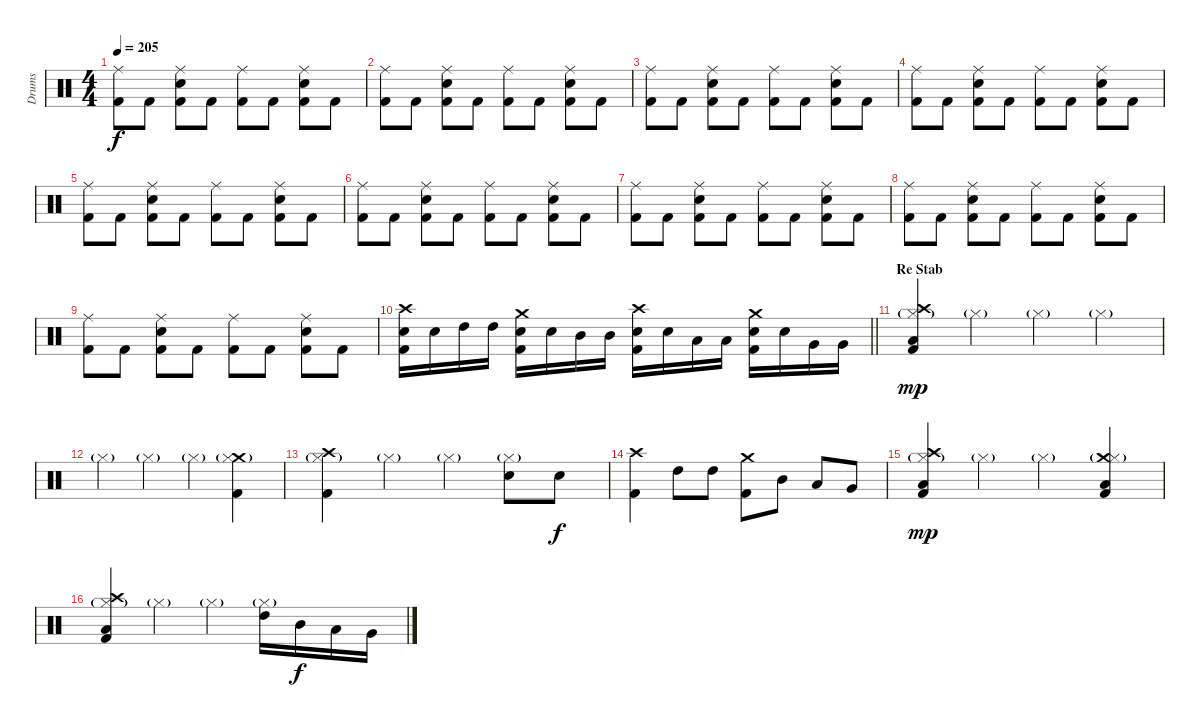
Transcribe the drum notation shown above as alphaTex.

\track ("Drums" "Drums") {instrument percussion}
\staff {score}
\articulation defaults
\ts (4 4)
\tempo 205
\clef neutral
\ks c
("Ride (middle)" "Kick (hit) 2").8{dy f} "Kick (hit) 2".8 ("Ride (middle)" "Snare (hit) 2" "Kick (hit) 2").8 "Kick (hit) 2".8 ("Ride (middle)" "Kick (hit) 2").8 "Kick (hit) 2".8 ("Ride (middle)" "Snare (hit) 2" "Kick (hit) 2").8 "Kick (hit) 2".8 |
("Ride (middle)" "Kick (hit) 2").8 "Kick (hit) 2".8 ("Ride (middle)" "Snare (hit) 2" "Kick (hit) 2").8 "Kick (hit) 2".8 ("Ride (middle)" "Kick (hit) 2").8 "Kick (hit) 2".8 ("Ride (middle)" "Snare (hit) 2" "Kick (hit) 2").8 "Kick (hit) 2".8 |
("Ride (middle)" "Kick (hit) 2").8 "Kick (hit) 2".8 ("Ride (middle)" "Snare (hit) 2" "Kick (hit) 2").8 "Kick (hit) 2".8 ("Ride (middle)" "Kick (hit) 2").8 "Kick (hit) 2".8 ("Ride (middle)" "Snare (hit) 2" "Kick (hit) 2").8 "Kick (hit) 2".8 |
("Ride (middle)" "Kick (hit) 2").8 "Kick (hit) 2".8 ("Ride (middle)" "Snare (hit) 2" "Kick (hit) 2").8 "Kick (hit) 2".8 ("Ride (middle)" "Kick (hit) 2").8 "Kick (hit) 2".8 ("Ride (middle)" "Snare (hit) 2" "Kick (hit) 2").8 "Kick (hit) 2".8 |
("Ride (middle)" "Kick (hit) 2").8 "Kick (hit) 2".8 ("Ride (middle)" "Snare (hit) 2" "Kick (hit) 2").8 "Kick (hit) 2".8 ("Ride (middle)" "Kick (hit) 2").8 "Kick (hit) 2".8 ("Ride (middle)" "Snare (hit) 2" "Kick (hit) 2").8 "Kick (hit) 2".8 |
("Ride (middle)" "Kick (hit) 2").8 "Kick (hit) 2".8 ("Ride (middle)" "Snare (hit) 2" "Kick (hit) 2").8 "Kick (hit) 2".8 ("Ride (middle)" "Kick (hit) 2").8 "Kick (hit) 2".8 ("Ride (middle)" "Snare (hit) 2" "Kick (hit) 2").8 "Kick (hit) 2".8 |
("Ride (middle)" "Kick (hit) 2").8 "Kick (hit) 2".8 ("Ride (middle)" "Snare (hit) 2" "Kick (hit) 2").8 "Kick (hit) 2".8 ("Ride (middle)" "Kick (hit) 2").8 "Kick (hit) 2".8 ("Ride (middle)" "Snare (hit) 2" "Kick (hit) 2").8 "Kick (hit) 2".8 |
("Ride (middle)" "Kick (hit) 2").8 "Kick (hit) 2".8 ("Ride (middle)" "Snare (hit) 2" "Kick (hit) 2").8 "Kick (hit) 2".8 ("Ride (middle)" "Kick (hit) 2").8 "Kick (hit) 2".8 ("Ride (middle)" "Snare (hit) 2" "Kick (hit) 2").8 "Kick (hit) 2".8 |
("Ride (middle)" "Kick (hit) 2").8 "Kick (hit) 2".8 ("Ride (middle)" "Snare (hit) 2" "Kick (hit) 2").8 "Kick (hit) 2".8 ("Ride (middle)" "Kick (hit) 2").8 "Kick (hit) 2".8 ("Ride (middle)" "Snare (hit) 2" "Kick (hit) 2").8 "Kick (hit) 2".8 |
\barLineRight lightlight
("Crash high (hit)" "Snare (hit) 2" "Kick (hit) 2").16 "Snare (hit) 2".16 "High Tom (hit)".16 "High Tom (hit)".16 ("Crash medium (hit)" "Snare (hit) 2" "Kick (hit) 2").16 "Snare (hit) 2".16 "Mid Tom (hit)".16 "Mid Tom (hit)".16 ("Crash high (hit)" "Snare (hit) 2" "Kick (hit) 2").16 "Snare (hit) 2".16 "Low Tom (hit)".16 "Low Tom (hit)".16 ("Crash medium (hit)" "Snare (hit) 2" "Kick (hit) 2").16 "Snare (hit) 2".16 "Very Low Tom (hit)".16 "Very Low Tom (hit)".16 |
\section ("" "Re Stab")
("Crash high (hit)" "Hi-Hat (closed)"{g} "Low Floor Tom (hit)" "Kick (hit) 2").4{dy mp} "Hi-Hat (closed)"{g}.4 "Hi-Hat (closed)"{g}.4 "Hi-Hat (closed)"{g}.4 |
"Hi-Hat (closed)"{g}.4 "Hi-Hat (closed)"{g}.4 "Hi-Hat (closed)"{g}.4 ("Crash medium (hit)" "Hi-Hat (closed)"{g} "Kick (hit) 2").4 |
("Crash high (hit)" "Hi-Hat (closed)"{g} "Kick (hit) 2").4 "Hi-Hat (closed)"{g}.4 "Hi-Hat (closed)"{g}.4 ("Hi-Hat (closed)"{g} "Snare (hit) 2").8 "Snare (hit) 2".8{dy f} |
("Crash high (hit)" "Kick (hit) 2").4 "High Tom (hit)".8 "High Tom (hit)".8 ("Crash medium (hit)" "Kick (hit) 2").8 "Mid Tom (hit)".8 "Low Tom (hit)".8 "Very Low Tom (hit)".8 |
("Crash high (hit)" "Hi-Hat (closed)"{g} "Low Floor Tom (hit)" "Kick (hit) 2").4{dy mp} "Hi-Hat (closed)"{g}.4 "Hi-Hat (closed)"{g}.4 ("Crash medium (hit)" "Hi-Hat (closed)"{g} "Low Floor Tom (hit)" "Kick (hit) 2").4 |
("Crash high (hit)" "Hi-Hat (closed)"{g} "Low Floor Tom (hit)" "Kick (hit) 2").4 "Hi-Hat (closed)"{g}.4 "Hi-Hat (closed)"{g}.4 ("Hi-Hat (closed)"{g} "High Tom (hit)").16 "Mid Tom (hit)".16{dy f} "Low Tom (hit)".16 "Very Low Tom (hit)".16
